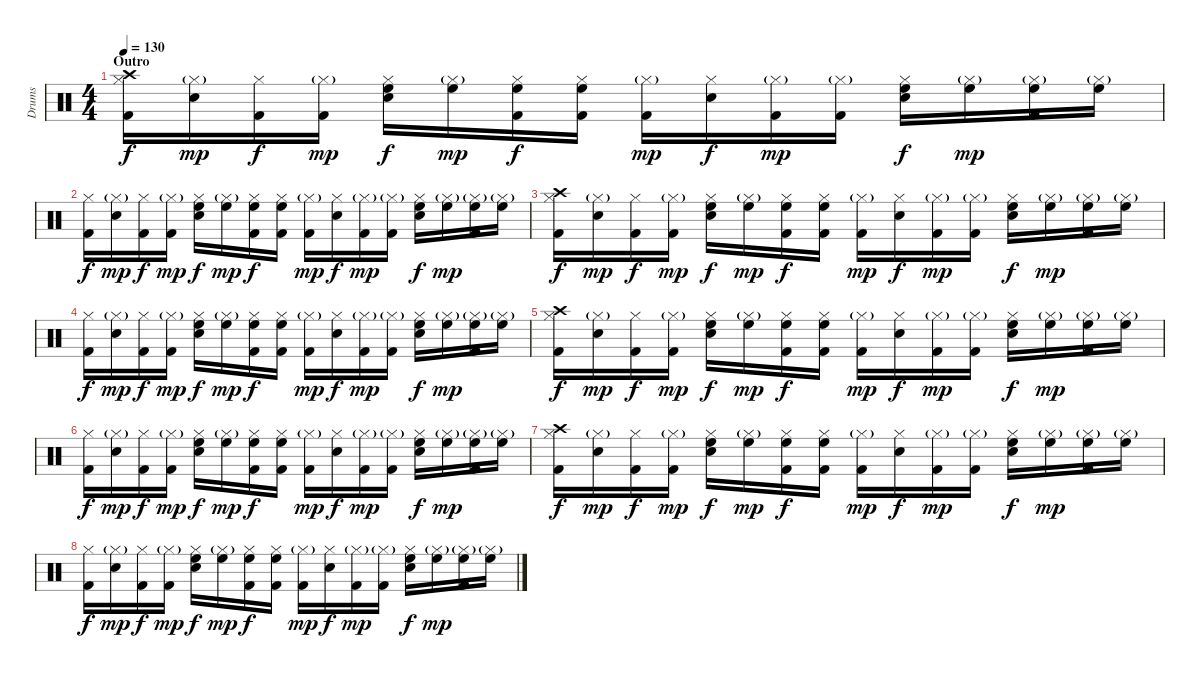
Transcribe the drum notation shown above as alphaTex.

\track ("Drums" "Drums") {instrument percussion}
\staff {score}
\articulation defaults
\ts (4 4)
\section ("" "Outro")
\tempo 130
\clef neutral
\ks c
("Hi-Hat (closed)" "Kick (hit) 2" "Crash high (hit)").16{dy f volume 6} ("Hi-Hat (closed)"{g} "Snare (hit) 2").16{dy mp} ("Hi-Hat (closed)" "Kick (hit) 2").16{dy f} ("Hi-Hat (closed)"{g} "Kick (hit) 2").16{dy mp} ("Hi-Hat (closed)" "Snare (hit) 2" "High Floor Tom (hit)").16{dy f} ("Hi-Hat (closed)"{g} "High Floor Tom (hit)").16{dy mp} ("Hi-Hat (closed)" "Kick (hit) 2" "High Floor Tom (hit)").16{dy f} ("Hi-Hat (closed)" "Kick (hit) 2" "High Floor Tom (hit)").16 ("Hi-Hat (closed)"{g} "Kick (hit) 2").16{dy mp} ("Hi-Hat (closed)" "Snare (hit) 2").16{dy f} ("Hi-Hat (closed)"{g} "Kick (hit) 2").16{dy mp} ("Hi-Hat (closed)"{g} "Kick (hit) 2").16 ("Hi-Hat (closed)" "Snare (hit) 2" "High Floor Tom (hit)").16{dy f} ("Hi-Hat (closed)"{g} "High Floor Tom (hit)").16{dy mp} ("Hi-Hat (closed)"{g} "Kick (hit) 2" "High Floor Tom (hit)").16 ("Hi-Hat (closed)"{g} "High Floor Tom (hit)").16 |
("Hi-Hat (closed)" "Kick (hit) 2").16{dy f} ("Hi-Hat (closed)"{g} "Snare (hit) 2").16{dy mp} ("Hi-Hat (closed)" "Kick (hit) 2").16{dy f} ("Hi-Hat (closed)"{g} "Kick (hit) 2").16{dy mp} ("Hi-Hat (closed)" "Snare (hit) 2" "High Floor Tom (hit)").16{dy f} ("Hi-Hat (closed)"{g} "High Floor Tom (hit)").16{dy mp} ("Hi-Hat (closed)" "Kick (hit) 2" "High Floor Tom (hit)").16{dy f} ("Hi-Hat (closed)" "Kick (hit) 2" "High Floor Tom (hit)").16 ("Hi-Hat (closed)"{g} "Kick (hit) 2").16{dy mp} ("Hi-Hat (closed)" "Snare (hit) 2").16{dy f} ("Hi-Hat (closed)"{g} "Kick (hit) 2").16{dy mp} ("Hi-Hat (closed)"{g} "Kick (hit) 2").16 ("Hi-Hat (closed)" "Snare (hit) 2" "High Floor Tom (hit)").16{dy f} ("Hi-Hat (closed)"{g} "High Floor Tom (hit)").16{dy mp} ("Hi-Hat (closed)"{g} "Kick (hit) 2" "High Floor Tom (hit)").16 ("Hi-Hat (closed)"{g} "High Floor Tom (hit)").16 |
("Hi-Hat (closed)" "Kick (hit) 2" "Crash high (hit)").16{dy f} ("Hi-Hat (closed)"{g} "Snare (hit) 2").16{dy mp} ("Hi-Hat (closed)" "Kick (hit) 2").16{dy f} ("Hi-Hat (closed)"{g} "Kick (hit) 2").16{dy mp} ("Hi-Hat (closed)" "Snare (hit) 2" "High Floor Tom (hit)").16{dy f} ("Hi-Hat (closed)"{g} "High Floor Tom (hit)").16{dy mp} ("Hi-Hat (closed)" "Kick (hit) 2" "High Floor Tom (hit)").16{dy f} ("Hi-Hat (closed)" "Kick (hit) 2" "High Floor Tom (hit)").16 ("Hi-Hat (closed)"{g} "Kick (hit) 2").16{dy mp} ("Hi-Hat (closed)" "Snare (hit) 2").16{dy f} ("Hi-Hat (closed)"{g} "Kick (hit) 2").16{dy mp} ("Hi-Hat (closed)"{g} "Kick (hit) 2").16 ("Hi-Hat (closed)" "Snare (hit) 2" "High Floor Tom (hit)").16{dy f} ("Hi-Hat (closed)"{g} "High Floor Tom (hit)").16{dy mp} ("Hi-Hat (closed)"{g} "Kick (hit) 2" "High Floor Tom (hit)").16 ("Hi-Hat (closed)"{g} "High Floor Tom (hit)").16 |
("Hi-Hat (closed)" "Kick (hit) 2").16{dy f} ("Hi-Hat (closed)"{g} "Snare (hit) 2").16{dy mp} ("Hi-Hat (closed)" "Kick (hit) 2").16{dy f} ("Hi-Hat (closed)"{g} "Kick (hit) 2").16{dy mp} ("Hi-Hat (closed)" "Snare (hit) 2" "High Floor Tom (hit)").16{dy f} ("Hi-Hat (closed)"{g} "High Floor Tom (hit)").16{dy mp} ("Hi-Hat (closed)" "Kick (hit) 2" "High Floor Tom (hit)").16{dy f} ("Hi-Hat (closed)" "Kick (hit) 2" "High Floor Tom (hit)").16 ("Hi-Hat (closed)"{g} "Kick (hit) 2").16{dy mp} ("Hi-Hat (closed)" "Snare (hit) 2").16{dy f} ("Hi-Hat (closed)"{g} "Kick (hit) 2").16{dy mp} ("Hi-Hat (closed)"{g} "Kick (hit) 2").16 ("Hi-Hat (closed)" "Snare (hit) 2" "High Floor Tom (hit)").16{dy f} ("Hi-Hat (closed)"{g} "High Floor Tom (hit)").16{dy mp} ("Hi-Hat (closed)"{g} "Kick (hit) 2" "High Floor Tom (hit)").16 ("Hi-Hat (closed)"{g} "High Floor Tom (hit)").16 |
("Hi-Hat (closed)" "Kick (hit) 2" "Crash high (hit)").16{dy f volume 0} ("Hi-Hat (closed)"{g} "Snare (hit) 2").16{dy mp} ("Hi-Hat (closed)" "Kick (hit) 2").16{dy f} ("Hi-Hat (closed)"{g} "Kick (hit) 2").16{dy mp} ("Hi-Hat (closed)" "Snare (hit) 2" "High Floor Tom (hit)").16{dy f} ("Hi-Hat (closed)"{g} "High Floor Tom (hit)").16{dy mp} ("Hi-Hat (closed)" "Kick (hit) 2" "High Floor Tom (hit)").16{dy f} ("Hi-Hat (closed)" "Kick (hit) 2" "High Floor Tom (hit)").16 ("Hi-Hat (closed)"{g} "Kick (hit) 2").16{dy mp} ("Hi-Hat (closed)" "Snare (hit) 2").16{dy f} ("Hi-Hat (closed)"{g} "Kick (hit) 2").16{dy mp} ("Hi-Hat (closed)"{g} "Kick (hit) 2").16 ("Hi-Hat (closed)" "Snare (hit) 2" "High Floor Tom (hit)").16{dy f} ("Hi-Hat (closed)"{g} "High Floor Tom (hit)").16{dy mp} ("Hi-Hat (closed)"{g} "Kick (hit) 2" "High Floor Tom (hit)").16 ("Hi-Hat (closed)"{g} "High Floor Tom (hit)").16 |
("Hi-Hat (closed)" "Kick (hit) 2").16{dy f} ("Hi-Hat (closed)"{g} "Snare (hit) 2").16{dy mp} ("Hi-Hat (closed)" "Kick (hit) 2").16{dy f} ("Hi-Hat (closed)"{g} "Kick (hit) 2").16{dy mp} ("Hi-Hat (closed)" "Snare (hit) 2" "High Floor Tom (hit)").16{dy f} ("Hi-Hat (closed)"{g} "High Floor Tom (hit)").16{dy mp} ("Hi-Hat (closed)" "Kick (hit) 2" "High Floor Tom (hit)").16{dy f} ("Hi-Hat (closed)" "Kick (hit) 2" "High Floor Tom (hit)").16 ("Hi-Hat (closed)"{g} "Kick (hit) 2").16{dy mp} ("Hi-Hat (closed)" "Snare (hit) 2").16{dy f} ("Hi-Hat (closed)"{g} "Kick (hit) 2").16{dy mp} ("Hi-Hat (closed)"{g} "Kick (hit) 2").16 ("Hi-Hat (closed)" "Snare (hit) 2" "High Floor Tom (hit)").16{dy f} ("Hi-Hat (closed)"{g} "High Floor Tom (hit)").16{dy mp} ("Hi-Hat (closed)"{g} "Kick (hit) 2" "High Floor Tom (hit)").16 ("Hi-Hat (closed)"{g} "High Floor Tom (hit)").16 |
("Hi-Hat (closed)" "Kick (hit) 2" "Crash high (hit)").16{dy f} ("Hi-Hat (closed)"{g} "Snare (hit) 2").16{dy mp} ("Hi-Hat (closed)" "Kick (hit) 2").16{dy f} ("Hi-Hat (closed)"{g} "Kick (hit) 2").16{dy mp} ("Hi-Hat (closed)" "Snare (hit) 2" "High Floor Tom (hit)").16{dy f} ("Hi-Hat (closed)"{g} "High Floor Tom (hit)").16{dy mp} ("Hi-Hat (closed)" "Kick (hit) 2" "High Floor Tom (hit)").16{dy f} ("Hi-Hat (closed)" "Kick (hit) 2" "High Floor Tom (hit)").16 ("Hi-Hat (closed)"{g} "Kick (hit) 2").16{dy mp} ("Hi-Hat (closed)" "Snare (hit) 2").16{dy f} ("Hi-Hat (closed)"{g} "Kick (hit) 2").16{dy mp} ("Hi-Hat (closed)"{g} "Kick (hit) 2").16 ("Hi-Hat (closed)" "Snare (hit) 2" "High Floor Tom (hit)").16{dy f} ("Hi-Hat (closed)"{g} "High Floor Tom (hit)").16{dy mp} ("Hi-Hat (closed)"{g} "Kick (hit) 2" "High Floor Tom (hit)").16 ("Hi-Hat (closed)"{g} "High Floor Tom (hit)").16 |
("Hi-Hat (closed)" "Kick (hit) 2").16{dy f} ("Hi-Hat (closed)"{g} "Snare (hit) 2").16{dy mp} ("Hi-Hat (closed)" "Kick (hit) 2").16{dy f} ("Hi-Hat (closed)"{g} "Kick (hit) 2").16{dy mp} ("Hi-Hat (closed)" "Snare (hit) 2" "High Floor Tom (hit)").16{dy f} ("Hi-Hat (closed)"{g} "High Floor Tom (hit)").16{dy mp} ("Hi-Hat (closed)" "Kick (hit) 2" "High Floor Tom (hit)").16{dy f} ("Hi-Hat (closed)" "Kick (hit) 2" "High Floor Tom (hit)").16 ("Hi-Hat (closed)"{g} "Kick (hit) 2").16{dy mp} ("Hi-Hat (closed)" "Snare (hit) 2").16{dy f} ("Hi-Hat (closed)"{g} "Kick (hit) 2").16{dy mp} ("Hi-Hat (closed)"{g} "Kick (hit) 2").16 ("Hi-Hat (closed)" "Snare (hit) 2" "High Floor Tom (hit)").16{dy f} ("Hi-Hat (closed)"{g} "High Floor Tom (hit)").16{dy mp} ("Hi-Hat (closed)"{g} "Kick (hit) 2" "High Floor Tom (hit)").16 ("Hi-Hat (closed)"{g} "High Floor Tom (hit)").16
